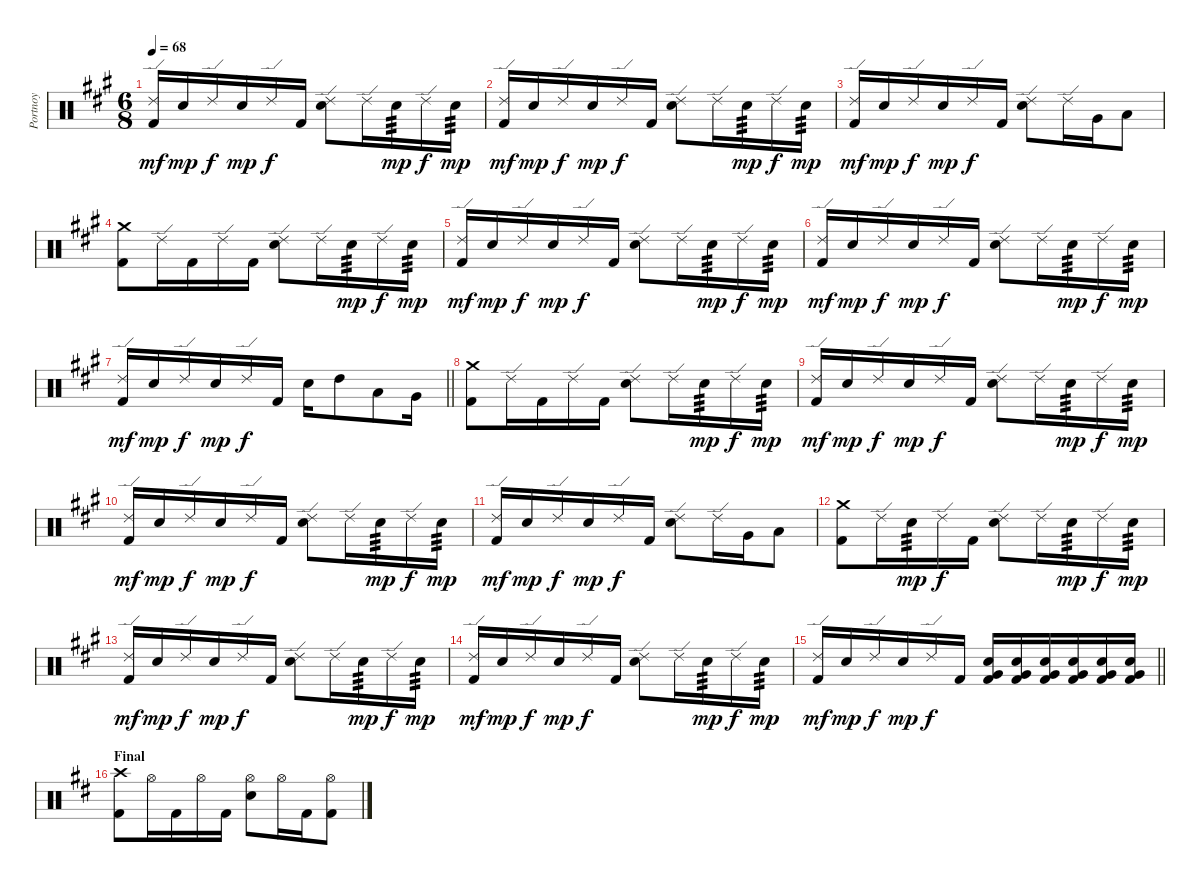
\track ("Portnoy" "Portnoy") {instrument percussion}
\staff {score}
\articulation defaults
\ts (6 8)
\tempo 68
\clef neutral
\ks a
("Ride (edge) 2" "Kick (hit) 2").16{dy mf} "Snare (hit) 2".16{dy mp} "Ride (edge) 2".16{dy f} "Snare (hit) 2".16{dy mp} "Ride (edge) 2".16{dy f} "Kick (hit) 2".16 ("Ride (edge) 2" "Snare (hit) 2").8 "Ride (edge) 2".16 "Snare (hit) 2".16{tp 3 dy mp} "Ride (edge) 2".16{dy f} "Snare (hit) 2".16{tp 3 dy mp} |
("Ride (edge) 2" "Kick (hit) 2").16{dy mf} "Snare (hit) 2".16{dy mp} "Ride (edge) 2".16{dy f} "Snare (hit) 2".16{dy mp} "Ride (edge) 2".16{dy f} "Kick (hit) 2".16 ("Ride (edge) 2" "Snare (hit) 2").8 "Ride (edge) 2".16 "Snare (hit) 2".16{tp 3 dy mp} "Ride (edge) 2".16{dy f} "Snare (hit) 2".16{tp 3 dy mp} |
("Ride (edge) 2" "Kick (hit) 2").16{dy mf} "Snare (hit) 2".16{dy mp} "Ride (edge) 2".16{dy f} "Snare (hit) 2".16{dy mp} "Ride (edge) 2".16{dy f} "Kick (hit) 2".16 ("Ride (edge) 2" "Snare (hit) 2").8 "Ride (edge) 2".16 "Very Low Tom (hit)".16 "Low Floor Tom (hit)".8 |
("Crash medium (hit)" "Kick (hit) 2").8 "Ride (edge) 2".16 "Kick (hit) 2".16 "Ride (edge) 2".16 "Kick (hit) 2".16 ("Ride (edge) 2" "Snare (hit) 2").8 "Ride (edge) 2".16 "Snare (hit) 2".16{tp 3 dy mp} "Ride (edge) 2".16{dy f} "Snare (hit) 2".16{tp 3 dy mp} |
("Ride (edge) 2" "Kick (hit) 2").16{dy mf} "Snare (hit) 2".16{dy mp} "Ride (edge) 2".16{dy f} "Snare (hit) 2".16{dy mp} "Ride (edge) 2".16{dy f} "Kick (hit) 2".16 ("Ride (edge) 2" "Snare (hit) 2").8 "Ride (edge) 2".16 "Snare (hit) 2".16{tp 3 dy mp} "Ride (edge) 2".16{dy f} "Snare (hit) 2".16{tp 3 dy mp} |
("Ride (edge) 2" "Kick (hit) 2").16{dy mf} "Snare (hit) 2".16{dy mp} "Ride (edge) 2".16{dy f} "Snare (hit) 2".16{dy mp} "Ride (edge) 2".16{dy f} "Kick (hit) 2".16 ("Ride (edge) 2" "Snare (hit) 2").8 "Ride (edge) 2".16 "Snare (hit) 2".16{tp 3 dy mp} "Ride (edge) 2".16{dy f} "Snare (hit) 2".16{tp 3 dy mp} |
\barLineRight lightlight
("Ride (edge) 2" "Kick (hit) 2").16{dy mf} "Snare (hit) 2".16{dy mp} "Ride (edge) 2".16{dy f} "Snare (hit) 2".16{dy mp} "Ride (edge) 2".16{dy f} "Kick (hit) 2".16 "Snare (hit) 2".16 "High Tom (hit)".8 "Low Tom (hit)".8 "Very Low Tom (hit)".16 |
("Crash medium (hit)" "Kick (hit) 2").8 "Ride (edge) 2".16 "Kick (hit) 2".16 "Ride (edge) 2".16 "Kick (hit) 2".16 ("Ride (edge) 2" "Snare (hit) 2").8 "Ride (edge) 2".16 "Snare (hit) 2".16{tp 3 dy mp} "Ride (edge) 2".16{dy f} "Snare (hit) 2".16{tp 3 dy mp} |
("Ride (edge) 2" "Kick (hit) 2").16{dy mf} "Snare (hit) 2".16{dy mp} "Ride (edge) 2".16{dy f} "Snare (hit) 2".16{dy mp} "Ride (edge) 2".16{dy f} "Kick (hit) 2".16 ("Ride (edge) 2" "Snare (hit) 2").8 "Ride (edge) 2".16 "Snare (hit) 2".16{tp 3 dy mp} "Ride (edge) 2".16{dy f} "Snare (hit) 2".16{tp 3 dy mp} |
("Ride (edge) 2" "Kick (hit) 2").16{dy mf} "Snare (hit) 2".16{dy mp} "Ride (edge) 2".16{dy f} "Snare (hit) 2".16{dy mp} "Ride (edge) 2".16{dy f} "Kick (hit) 2".16 ("Ride (edge) 2" "Snare (hit) 2").8 "Ride (edge) 2".16 "Snare (hit) 2".16{tp 3 dy mp} "Ride (edge) 2".16{dy f} "Snare (hit) 2".16{tp 3 dy mp} |
("Ride (edge) 2" "Kick (hit) 2").16{dy mf} "Snare (hit) 2".16{dy mp} "Ride (edge) 2".16{dy f} "Snare (hit) 2".16{dy mp} "Ride (edge) 2".16{dy f} "Kick (hit) 2".16 ("Ride (edge) 2" "Snare (hit) 2").8 "Ride (edge) 2".16 "Very Low Tom (hit)".16 "Low Floor Tom (hit)".8 |
("Crash medium (hit)" "Kick (hit) 2").8 "Ride (edge) 2".16 "Snare (hit) 2".16{tp 3 dy mp} "Ride (edge) 2".16{dy f} "Kick (hit) 2".16 ("Ride (edge) 2" "Snare (hit) 2").8 "Ride (edge) 2".16 "Snare (hit) 2".16{tp 3 dy mp} "Ride (edge) 2".16{dy f} "Snare (hit) 2".16{tp 3 dy mp} |
("Ride (edge) 2" "Kick (hit) 2").16{dy mf} "Snare (hit) 2".16{dy mp} "Ride (edge) 2".16{dy f} "Snare (hit) 2".16{dy mp} "Ride (edge) 2".16{dy f} "Kick (hit) 2".16 ("Ride (edge) 2" "Snare (hit) 2").8 "Ride (edge) 2".16 "Snare (hit) 2".16{tp 3 dy mp} "Ride (edge) 2".16{dy f} "Snare (hit) 2".16{tp 3 dy mp} |
("Ride (edge) 2" "Kick (hit) 2").16{dy mf} "Snare (hit) 2".16{dy mp} "Ride (edge) 2".16{dy f} "Snare (hit) 2".16{dy mp} "Ride (edge) 2".16{dy f} "Kick (hit) 2".16 ("Ride (edge) 2" "Snare (hit) 2").8 "Ride (edge) 2".16 "Snare (hit) 2".16{tp 3 dy mp} "Ride (edge) 2".16{dy f} "Snare (hit) 2".16{tp 3 dy mp} |
\barLineRight lightlight
("Ride (edge) 2" "Kick (hit) 2").16{dy mf} "Snare (hit) 2".16{dy mp} "Ride (edge) 2".16{dy f} "Snare (hit) 2".16{dy mp} "Ride (edge) 2".16{dy f} "Kick (hit) 2".16 ("Kick (hit) 2" "Very Low Tom (hit)" "Snare (hit) 2").16 ("Kick (hit) 2" "Very Low Tom (hit)" "Snare (hit) 2").16 ("Kick (hit) 2" "Very Low Tom (hit)" "Snare (hit) 2").16 ("Kick (hit) 2" "Very Low Tom (hit)" "Snare (hit) 2").16 ("Kick (hit) 2" "Very Low Tom (hit)" "Snare (hit) 2").16 ("Kick (hit) 2" "Very Low Tom (hit)" "Snare (hit) 2").16 |
\section ("" "Final")
\ks d
("Crash high (hit)" "Kick (hit) 2").8 "Hi-Hat (open)".16 "Kick (hit) 2".16 "Hi-Hat (open)".16 "Kick (hit) 2".16 ("Hi-Hat (open)" "Snare (hit) 2").8 "Hi-Hat (open)".16 "Kick (hit) 2".16 ("Hi-Hat (open)" "Kick (hit) 2").8
